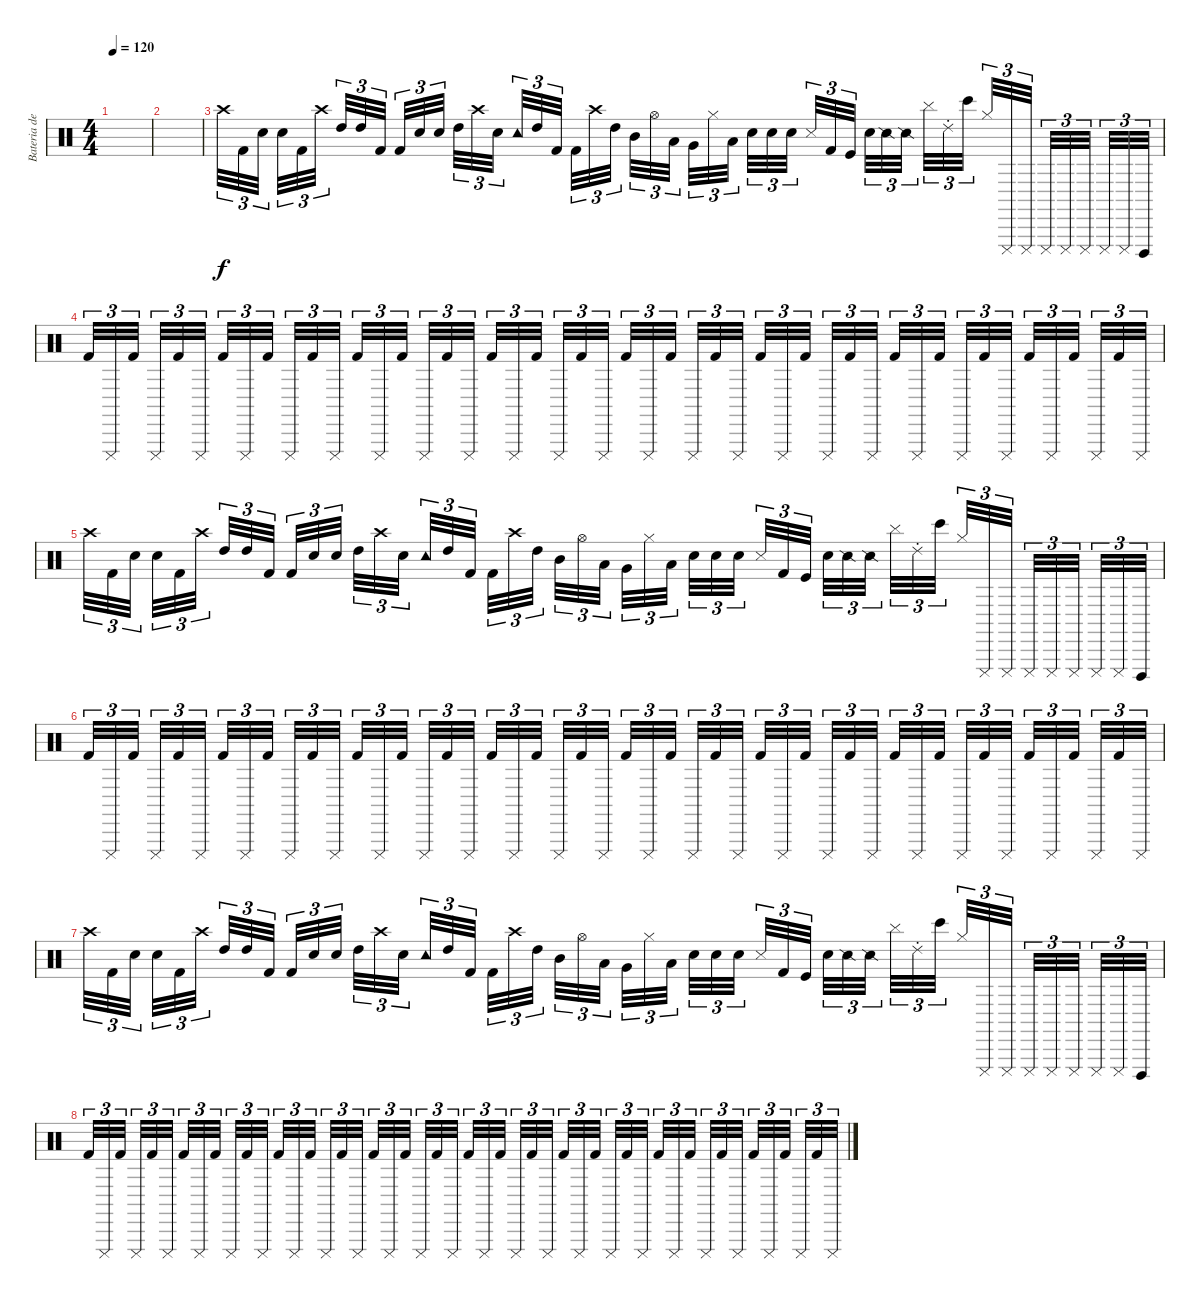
\track ("Bateria de animal" "Bateria de") {instrument percussion}
\staff {score}
\articulation defaults
\ts (4 4)
\tempo 120
\clef neutral
\ks c
|
|
"Crash high (hit)".32{tu (3 2)} "Kick (hit) 2".32{tu (3 2)} "Electric Snare (hit)".32{tu (3 2)} "Electric Snare (hit)".32{tu (3 2)} "Kick (hit) 2".32{tu (3 2)} "Crash high (hit)".32{tu (3 2)} "High Tom (hit)".32{tu (3 2)} "High Tom (hit)".32{tu (3 2)} "Kick (hit) 2".32{tu (3 2)} "Kick (hit) 2".32{tu (3 2)} "Electric Snare (hit)".32{tu (3 2)} "Electric Snare (hit)".32{tu (3 2)} "High Tom (hit)".32{tu (3 2)} "Crash high (hit)".32{tu (3 2)} "Snare (hit) 2".32{tu (3 2)} "Tambourine (hit)".32{tu (3 2)} "High Tom (hit)".32{tu (3 2)} "Kick (hit) 2".32{tu (3 2)} "Kick (hit) 2".32{tu (3 2)} "Crash high (hit)".32{tu (3 2)} "High Tom (hit)".32{tu (3 2)} "Mid Tom (hit)".32{tu (3 2)} "Hi-Hat (open)".32{tu (3 2)} "Low Tom (hit)".32{tu (3 2)} "Very Low Tom (hit)".32{tu (3 2)} "Hi-Hat (closed)".32{tu (3 2)} "Low Floor Tom (hit)".32{tu (3 2)} "Electric Snare (hit)".32{tu (3 2)} "Hand Clap (hit)".32{tu (3 2)} "Snare (hit) 2".32{tu (3 2)} "Snare (side stick) 3".32{tu (3 2)} "Kick (hit) 2".32{tu (3 2)} "Kick (hit)".32{tu (3 2)} "Metronome (bell)".32{tu (3 2)} "Snare (side stick) 2".32{tu (3 2)} "Snare (side stick) 2".32{tu (3 2)} "Cymbal (hit)".32{tu (3 2)} "Ride (choke) 2".32{tu (3 2)} "Bongo High (hit)".32{tu (3 2)} "Hi-Hat (closed)".32{tu (3 2)} "Cuica (mute)".32{tu (3 2)} "Cuica (mute)".32{tu (3 2)} "Cuica (mute)".32{tu (3 2)} "Cuica (mute)".32{tu (3 2)} "Cuica (mute)".32{tu (3 2)} "Cuica (mute)".32{tu (3 2)} "Cuica (mute)".32{tu (3 2)} "Cuica (open)".32{tu (3 2)} |
"Kick (hit) 2".32{tu (3 2)} "Cuica (mute)".32{tu (3 2)} "Kick (hit) 2".32{tu (3 2)} "Cuica (mute)".32{tu (3 2)} "Kick (hit) 2".32{tu (3 2)} "Cuica (mute)".32{tu (3 2)} "Kick (hit) 2".32{tu (3 2)} "Cuica (mute)".32{tu (3 2)} "Kick (hit) 2".32{tu (3 2)} "Cuica (mute)".32{tu (3 2)} "Kick (hit) 2".32{tu (3 2)} "Cuica (mute)".32{tu (3 2)} "Kick (hit) 2".32{tu (3 2)} "Cuica (mute)".32{tu (3 2)} "Kick (hit) 2".32{tu (3 2)} "Cuica (mute)".32{tu (3 2)} "Kick (hit) 2".32{tu (3 2)} "Cuica (mute)".32{tu (3 2)} "Kick (hit) 2".32{tu (3 2)} "Cuica (mute)".32{tu (3 2)} "Kick (hit) 2".32{tu (3 2)} "Cuica (mute)".32{tu (3 2)} "Kick (hit) 2".32{tu (3 2)} "Cuica (mute)".32{tu (3 2)} "Kick (hit) 2".32{tu (3 2)} "Cuica (mute)".32{tu (3 2)} "Kick (hit) 2".32{tu (3 2)} "Cuica (mute)".32{tu (3 2)} "Kick (hit) 2".32{tu (3 2)} "Cuica (mute)".32{tu (3 2)} "Kick (hit) 2".32{tu (3 2)} "Cuica (mute)".32{tu (3 2)} "Kick (hit) 2".32{tu (3 2)} "Cuica (mute)".32{tu (3 2)} "Kick (hit) 2".32{tu (3 2)} "Cuica (mute)".32{tu (3 2)} "Kick (hit) 2".32{tu (3 2)} "Cuica (mute)".32{tu (3 2)} "Kick (hit) 2".32{tu (3 2)} "Cuica (mute)".32{tu (3 2)} "Kick (hit) 2".32{tu (3 2)} "Cuica (mute)".32{tu (3 2)} "Kick (hit) 2".32{tu (3 2)} "Cuica (mute)".32{tu (3 2)} "Kick (hit) 2".32{tu (3 2)} "Cuica (mute)".32{tu (3 2)} "Kick (hit) 2".32{tu (3 2)} "Cuica (mute)".32{tu (3 2)} |
"Crash high (hit)".32{tu (3 2)} "Kick (hit) 2".32{tu (3 2)} "Electric Snare (hit)".32{tu (3 2)} "Electric Snare (hit)".32{tu (3 2)} "Kick (hit) 2".32{tu (3 2)} "Crash high (hit)".32{tu (3 2)} "High Tom (hit)".32{tu (3 2)} "High Tom (hit)".32{tu (3 2)} "Kick (hit) 2".32{tu (3 2)} "Kick (hit) 2".32{tu (3 2)} "Electric Snare (hit)".32{tu (3 2)} "Electric Snare (hit)".32{tu (3 2)} "High Tom (hit)".32{tu (3 2)} "Crash high (hit)".32{tu (3 2)} "Snare (hit) 2".32{tu (3 2)} "Tambourine (hit)".32{tu (3 2)} "High Tom (hit)".32{tu (3 2)} "Kick (hit) 2".32{tu (3 2)} "Kick (hit) 2".32{tu (3 2)} "Crash high (hit)".32{tu (3 2)} "High Tom (hit)".32{tu (3 2)} "Mid Tom (hit)".32{tu (3 2)} "Hi-Hat (open)".32{tu (3 2)} "Low Tom (hit)".32{tu (3 2)} "Very Low Tom (hit)".32{tu (3 2)} "Hi-Hat (closed)".32{tu (3 2)} "Low Floor Tom (hit)".32{tu (3 2)} "Electric Snare (hit)".32{tu (3 2)} "Hand Clap (hit)".32{tu (3 2)} "Snare (hit) 2".32{tu (3 2)} "Snare (side stick) 3".32{tu (3 2)} "Kick (hit) 2".32{tu (3 2)} "Kick (hit)".32{tu (3 2)} "Metronome (bell)".32{tu (3 2)} "Snare (side stick) 2".32{tu (3 2)} "Snare (side stick) 2".32{tu (3 2)} "Cymbal (hit)".32{tu (3 2)} "Ride (choke) 2".32{tu (3 2)} "Bongo High (hit)".32{tu (3 2)} "Hi-Hat (closed)".32{tu (3 2)} "Cuica (mute)".32{tu (3 2)} "Cuica (mute)".32{tu (3 2)} "Cuica (mute)".32{tu (3 2)} "Cuica (mute)".32{tu (3 2)} "Cuica (mute)".32{tu (3 2)} "Cuica (mute)".32{tu (3 2)} "Cuica (mute)".32{tu (3 2)} "Cuica (open)".32{tu (3 2)} |
"Kick (hit) 2".32{tu (3 2)} "Cuica (mute)".32{tu (3 2)} "Kick (hit) 2".32{tu (3 2)} "Cuica (mute)".32{tu (3 2)} "Kick (hit) 2".32{tu (3 2)} "Cuica (mute)".32{tu (3 2)} "Kick (hit) 2".32{tu (3 2)} "Cuica (mute)".32{tu (3 2)} "Kick (hit) 2".32{tu (3 2)} "Cuica (mute)".32{tu (3 2)} "Kick (hit) 2".32{tu (3 2)} "Cuica (mute)".32{tu (3 2)} "Kick (hit) 2".32{tu (3 2)} "Cuica (mute)".32{tu (3 2)} "Kick (hit) 2".32{tu (3 2)} "Cuica (mute)".32{tu (3 2)} "Kick (hit) 2".32{tu (3 2)} "Cuica (mute)".32{tu (3 2)} "Kick (hit) 2".32{tu (3 2)} "Cuica (mute)".32{tu (3 2)} "Kick (hit) 2".32{tu (3 2)} "Cuica (mute)".32{tu (3 2)} "Kick (hit) 2".32{tu (3 2)} "Cuica (mute)".32{tu (3 2)} "Kick (hit) 2".32{tu (3 2)} "Cuica (mute)".32{tu (3 2)} "Kick (hit) 2".32{tu (3 2)} "Cuica (mute)".32{tu (3 2)} "Kick (hit) 2".32{tu (3 2)} "Cuica (mute)".32{tu (3 2)} "Kick (hit) 2".32{tu (3 2)} "Cuica (mute)".32{tu (3 2)} "Kick (hit) 2".32{tu (3 2)} "Cuica (mute)".32{tu (3 2)} "Kick (hit) 2".32{tu (3 2)} "Cuica (mute)".32{tu (3 2)} "Kick (hit) 2".32{tu (3 2)} "Cuica (mute)".32{tu (3 2)} "Kick (hit) 2".32{tu (3 2)} "Cuica (mute)".32{tu (3 2)} "Kick (hit) 2".32{tu (3 2)} "Cuica (mute)".32{tu (3 2)} "Kick (hit) 2".32{tu (3 2)} "Cuica (mute)".32{tu (3 2)} "Kick (hit) 2".32{tu (3 2)} "Cuica (mute)".32{tu (3 2)} "Kick (hit) 2".32{tu (3 2)} "Cuica (mute)".32{tu (3 2)} |
"Crash high (hit)".32{tu (3 2)} "Kick (hit) 2".32{tu (3 2)} "Electric Snare (hit)".32{tu (3 2)} "Electric Snare (hit)".32{tu (3 2)} "Kick (hit) 2".32{tu (3 2)} "Crash high (hit)".32{tu (3 2)} "High Tom (hit)".32{tu (3 2)} "High Tom (hit)".32{tu (3 2)} "Kick (hit) 2".32{tu (3 2)} "Kick (hit) 2".32{tu (3 2)} "Electric Snare (hit)".32{tu (3 2)} "Electric Snare (hit)".32{tu (3 2)} "High Tom (hit)".32{tu (3 2)} "Crash high (hit)".32{tu (3 2)} "Snare (hit) 2".32{tu (3 2)} "Tambourine (hit)".32{tu (3 2)} "High Tom (hit)".32{tu (3 2)} "Kick (hit) 2".32{tu (3 2)} "Kick (hit) 2".32{tu (3 2)} "Crash high (hit)".32{tu (3 2)} "High Tom (hit)".32{tu (3 2)} "Mid Tom (hit)".32{tu (3 2)} "Hi-Hat (open)".32{tu (3 2)} "Low Tom (hit)".32{tu (3 2)} "Very Low Tom (hit)".32{tu (3 2)} "Hi-Hat (closed)".32{tu (3 2)} "Low Floor Tom (hit)".32{tu (3 2)} "Electric Snare (hit)".32{tu (3 2)} "Hand Clap (hit)".32{tu (3 2)} "Snare (hit) 2".32{tu (3 2)} "Snare (side stick) 3".32{tu (3 2)} "Kick (hit) 2".32{tu (3 2)} "Kick (hit)".32{tu (3 2)} "Metronome (bell)".32{tu (3 2)} "Snare (side stick) 2".32{tu (3 2)} "Snare (side stick) 2".32{tu (3 2)} "Cymbal (hit)".32{tu (3 2)} "Ride (choke) 2".32{tu (3 2)} "Bongo High (hit)".32{tu (3 2)} "Hi-Hat (closed)".32{tu (3 2)} "Cuica (mute)".32{tu (3 2)} "Cuica (mute)".32{tu (3 2)} "Cuica (mute)".32{tu (3 2)} "Cuica (mute)".32{tu (3 2)} "Cuica (mute)".32{tu (3 2)} "Cuica (mute)".32{tu (3 2)} "Cuica (mute)".32{tu (3 2)} "Cuica (open)".32{tu (3 2)} |
"Kick (hit) 2".32{tu (3 2)} "Cuica (mute)".32{tu (3 2)} "Kick (hit) 2".32{tu (3 2)} "Cuica (mute)".32{tu (3 2)} "Kick (hit) 2".32{tu (3 2)} "Cuica (mute)".32{tu (3 2)} "Kick (hit) 2".32{tu (3 2)} "Cuica (mute)".32{tu (3 2)} "Kick (hit) 2".32{tu (3 2)} "Cuica (mute)".32{tu (3 2)} "Kick (hit) 2".32{tu (3 2)} "Cuica (mute)".32{tu (3 2)} "Kick (hit) 2".32{tu (3 2)} "Cuica (mute)".32{tu (3 2)} "Kick (hit) 2".32{tu (3 2)} "Cuica (mute)".32{tu (3 2)} "Kick (hit) 2".32{tu (3 2)} "Cuica (mute)".32{tu (3 2)} "Kick (hit) 2".32{tu (3 2)} "Cuica (mute)".32{tu (3 2)} "Kick (hit) 2".32{tu (3 2)} "Cuica (mute)".32{tu (3 2)} "Kick (hit) 2".32{tu (3 2)} "Cuica (mute)".32{tu (3 2)} "Kick (hit) 2".32{tu (3 2)} "Cuica (mute)".32{tu (3 2)} "Kick (hit) 2".32{tu (3 2)} "Cuica (mute)".32{tu (3 2)} "Kick (hit) 2".32{tu (3 2)} "Cuica (mute)".32{tu (3 2)} "Kick (hit) 2".32{tu (3 2)} "Cuica (mute)".32{tu (3 2)} "Kick (hit) 2".32{tu (3 2)} "Cuica (mute)".32{tu (3 2)} "Kick (hit) 2".32{tu (3 2)} "Cuica (mute)".32{tu (3 2)} "Kick (hit) 2".32{tu (3 2)} "Cuica (mute)".32{tu (3 2)} "Kick (hit) 2".32{tu (3 2)} "Cuica (mute)".32{tu (3 2)} "Kick (hit) 2".32{tu (3 2)} "Cuica (mute)".32{tu (3 2)} "Kick (hit) 2".32{tu (3 2)} "Cuica (mute)".32{tu (3 2)} "Kick (hit) 2".32{tu (3 2)} "Cuica (mute)".32{tu (3 2)} "Kick (hit) 2".32{tu (3 2)} "Cuica (mute)".32{tu (3 2)}
